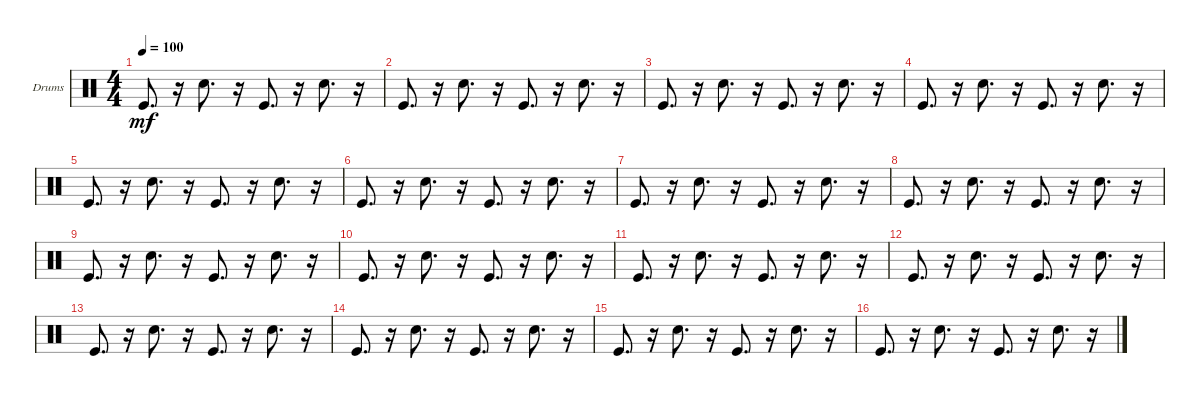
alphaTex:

\bracketExtendMode groupsimilarinstruments
\firstSystemTrackNameOrientation horizontal
\otherSystemsTrackNameOrientation horizontal
\track ("Bass Percussion" "Drums") {instrument percussion}
\staff {score}
\articulation defaults
\ts (4 4)
\tempo 100
\clef neutral
\ks c "Kick (hit)".8{d dy mf}
r.16 "Snare (hit) 2".8{d} r.16 "Kick (hit)".8{d} r.16 "Snare (hit) 2".8{d} r.16 |
"Kick (hit)".8{d} r.16 "Snare (hit) 2".8{d} r.16 "Kick (hit)".8{d} r.16 "Snare (hit) 2".8{d} r.16 |
"Kick (hit)".8{d} r.16 "Snare (hit) 2".8{d} r.16 "Kick (hit)".8{d} r.16 "Snare (hit) 2".8{d} r.16 |
"Kick (hit)".8{d} r.16 "Snare (hit) 2".8{d} r.16 "Kick (hit)".8{d} r.16 "Snare (hit) 2".8{d} r.16 |
"Kick (hit)".8{d} r.16 "Snare (hit) 2".8{d} r.16 "Kick (hit)".8{d} r.16 "Snare (hit) 2".8{d} r.16 |
"Kick (hit)".8{d} r.16 "Snare (hit) 2".8{d} r.16 "Kick (hit)".8{d} r.16 "Snare (hit) 2".8{d} r.16 |
"Kick (hit)".8{d} r.16 "Snare (hit) 2".8{d} r.16 "Kick (hit)".8{d} r.16 "Snare (hit) 2".8{d} r.16 |
"Kick (hit)".8{d} r.16 "Snare (hit) 2".8{d} r.16 "Kick (hit)".8{d} r.16 "Snare (hit) 2".8{d} r.16 |
"Kick (hit)".8{d} r.16 "Snare (hit) 2".8{d} r.16 "Kick (hit)".8{d} r.16 "Snare (hit) 2".8{d} r.16 |
"Kick (hit)".8{d} r.16 "Snare (hit) 2".8{d} r.16 "Kick (hit)".8{d} r.16 "Snare (hit) 2".8{d} r.16 |
"Kick (hit)".8{d} r.16 "Snare (hit) 2".8{d} r.16 "Kick (hit)".8{d} r.16 "Snare (hit) 2".8{d} r.16 |
"Kick (hit)".8{d} r.16 "Snare (hit) 2".8{d} r.16 "Kick (hit)".8{d} r.16 "Snare (hit) 2".8{d} r.16 |
"Kick (hit)".8{d} r.16 "Snare (hit) 2".8{d} r.16 "Kick (hit)".8{d} r.16 "Snare (hit) 2".8{d} r.16 |
"Kick (hit)".8{d} r.16 "Snare (hit) 2".8{d} r.16 "Kick (hit)".8{d} r.16 "Snare (hit) 2".8{d} r.16 |
"Kick (hit)".8{d} r.16 "Snare (hit) 2".8{d} r.16 "Kick (hit)".8{d} r.16 "Snare (hit) 2".8{d} r.16 |
"Kick (hit)".8{d} r.16 "Snare (hit) 2".8{d} r.16 "Kick (hit)".8{d} r.16 "Snare (hit) 2".8{d} r.16
